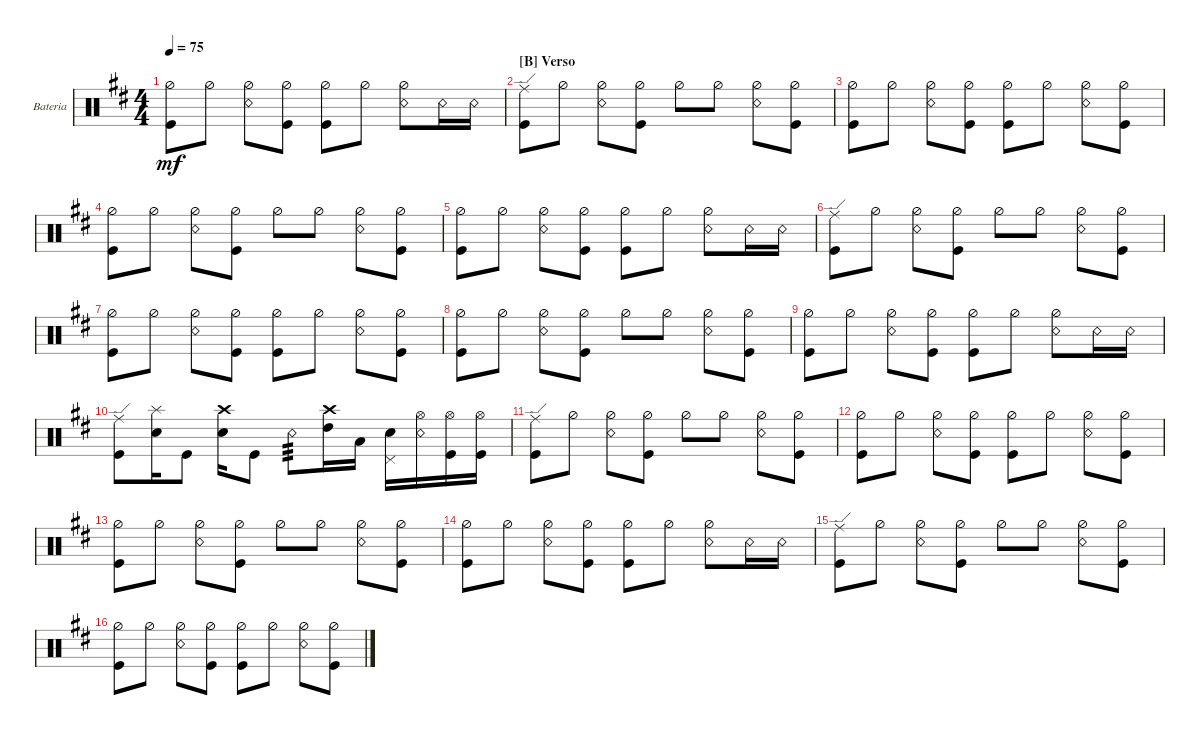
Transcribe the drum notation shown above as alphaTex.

\defaultSystemsLayout 4
\bracketExtendMode groupsimilarinstruments
\firstSystemTrackNameOrientation horizontal
\otherSystemsTrackNameOrientation horizontal
\track ("Bateria" "Bateria") {multiBarRest instrument percussion}
\staff {score}
\articulation defaults
\ts (4 4)
\tempo 75
\clef neutral
\ks d
("Hi-Hat (half)" "Kick (hit)").8{dy mf} "Hi-Hat (half)".8 ("Hi-Hat (half)" "Snare (rim shot)").8 ("Hi-Hat (half)" "Kick (hit)").8 ("Hi-Hat (half)" "Kick (hit)").8 "Hi-Hat (half)".8 ("Snare (rim shot)" "Hi-Hat (half)").8 "Snare (rim shot)".16 "Snare (rim shot)".16 |
\section ("B" "Verso")
("Kick (hit)" "Ride (edge)").8 "Hi-Hat (half)".8 ("Hi-Hat (half)" "Snare (rim shot)").8 ("Hi-Hat (half)" "Kick (hit)").8 "Hi-Hat (half)".8 "Hi-Hat (half)".8 ("Hi-Hat (half)" "Snare (rim shot)").8 ("Hi-Hat (half)" "Kick (hit)").8 |
("Hi-Hat (half)" "Kick (hit)").8 "Hi-Hat (half)".8 ("Hi-Hat (half)" "Snare (rim shot)").8 ("Hi-Hat (half)" "Kick (hit)").8 ("Hi-Hat (half)" "Kick (hit)").8 "Hi-Hat (half)".8 ("Snare (rim shot)" "Hi-Hat (half)").8 ("Hi-Hat (half)" "Kick (hit)").8 |
("Hi-Hat (half)" "Kick (hit)").8 "Hi-Hat (half)".8 ("Hi-Hat (half)" "Snare (rim shot)").8 ("Hi-Hat (half)" "Kick (hit)").8 "Hi-Hat (half)".8 "Hi-Hat (half)".8 ("Snare (rim shot)" "Hi-Hat (half)").8 ("Hi-Hat (half)" "Kick (hit)").8 |
("Hi-Hat (half)" "Kick (hit)").8 "Hi-Hat (half)".8 ("Hi-Hat (half)" "Snare (rim shot)").8 ("Hi-Hat (half)" "Kick (hit)").8 ("Hi-Hat (half)" "Kick (hit)").8 "Hi-Hat (half)".8 ("Snare (rim shot)" "Hi-Hat (half)").8 "Snare (rim shot)".16 "Snare (rim shot)".16 |
("Kick (hit)" "Ride (edge)").8 "Hi-Hat (half)".8 ("Hi-Hat (half)" "Snare (rim shot)").8 ("Hi-Hat (half)" "Kick (hit)").8 "Hi-Hat (half)".8 "Hi-Hat (half)".8 ("Hi-Hat (half)" "Snare (rim shot)").8 ("Hi-Hat (half)" "Kick (hit)").8 |
("Hi-Hat (half)" "Kick (hit)").8 "Hi-Hat (half)".8 ("Hi-Hat (half)" "Snare (rim shot)").8 ("Hi-Hat (half)" "Kick (hit)").8 ("Hi-Hat (half)" "Kick (hit)").8 "Hi-Hat (half)".8 ("Snare (rim shot)" "Hi-Hat (half)").8 ("Hi-Hat (half)" "Kick (hit)").8 |
("Hi-Hat (half)" "Kick (hit)").8 "Hi-Hat (half)".8 ("Hi-Hat (half)" "Snare (rim shot)").8 ("Hi-Hat (half)" "Kick (hit)").8 "Hi-Hat (half)".8 "Hi-Hat (half)".8 ("Snare (rim shot)" "Hi-Hat (half)").8 ("Hi-Hat (half)" "Kick (hit)").8 |
("Hi-Hat (half)" "Kick (hit)").8 "Hi-Hat (half)".8 ("Hi-Hat (half)" "Snare (rim shot)").8 ("Hi-Hat (half)" "Kick (hit)").8 ("Hi-Hat (half)" "Kick (hit)").8 "Hi-Hat (half)".8 ("Snare (rim shot)" "Hi-Hat (half)").8 "Snare (rim shot)".16 "Snare (rim shot)".16 |
("Ride (edge)" "Kick (hit)").8 ("Snare (hit) 2" "Splash (hit)").16 "Kick (hit)".8 ("Snare (hit) 2" "Crash high (hit)").16 "Kick (hit)".8 "Snare (rim shot)".8{tp 3} ("High Tom (hit)" "Crash high (hit)").16 "Low Tom (hit)".16 ("Snare (hit) 2" "Pedal Hi-Hat (hit)").16 ("Snare (rim shot)" "Hi-Hat (open)").16 ("Kick (hit)" "Hi-Hat (open)").16 ("Kick (hit)" "Hi-Hat (open)").16 |
("Kick (hit)" "Ride (edge)").8 "Hi-Hat (half)".8 ("Hi-Hat (half)" "Snare (rim shot)").8 ("Hi-Hat (half)" "Kick (hit)").8 "Hi-Hat (half)".8 "Hi-Hat (half)".8 ("Hi-Hat (half)" "Snare (rim shot)").8 ("Hi-Hat (half)" "Kick (hit)").8 |
("Hi-Hat (half)" "Kick (hit)").8 "Hi-Hat (half)".8 ("Hi-Hat (half)" "Snare (rim shot)").8 ("Hi-Hat (half)" "Kick (hit)").8 ("Hi-Hat (half)" "Kick (hit)").8 "Hi-Hat (half)".8 ("Snare (rim shot)" "Hi-Hat (half)").8 ("Hi-Hat (half)" "Kick (hit)").8 |
("Hi-Hat (half)" "Kick (hit)").8 "Hi-Hat (half)".8 ("Hi-Hat (half)" "Snare (rim shot)").8 ("Hi-Hat (half)" "Kick (hit)").8 "Hi-Hat (half)".8 "Hi-Hat (half)".8 ("Snare (rim shot)" "Hi-Hat (half)").8 ("Hi-Hat (half)" "Kick (hit)").8 |
("Hi-Hat (half)" "Kick (hit)").8 "Hi-Hat (half)".8 ("Hi-Hat (half)" "Snare (rim shot)").8 ("Hi-Hat (half)" "Kick (hit)").8 ("Hi-Hat (half)" "Kick (hit)").8 "Hi-Hat (half)".8 ("Snare (rim shot)" "Hi-Hat (half)").8 "Snare (rim shot)".16 "Snare (rim shot)".16 |
("Kick (hit)" "Ride (edge)").8 "Hi-Hat (half)".8 ("Hi-Hat (half)" "Snare (rim shot)").8 ("Hi-Hat (half)" "Kick (hit)").8 "Hi-Hat (half)".8 "Hi-Hat (half)".8 ("Hi-Hat (half)" "Snare (rim shot)").8 ("Hi-Hat (half)" "Kick (hit)").8 |
("Hi-Hat (half)" "Kick (hit)").8 "Hi-Hat (half)".8 ("Hi-Hat (half)" "Snare (rim shot)").8 ("Hi-Hat (half)" "Kick (hit)").8 ("Hi-Hat (half)" "Kick (hit)").8 "Hi-Hat (half)".8 ("Snare (rim shot)" "Hi-Hat (half)").8 ("Hi-Hat (half)" "Kick (hit)").8
